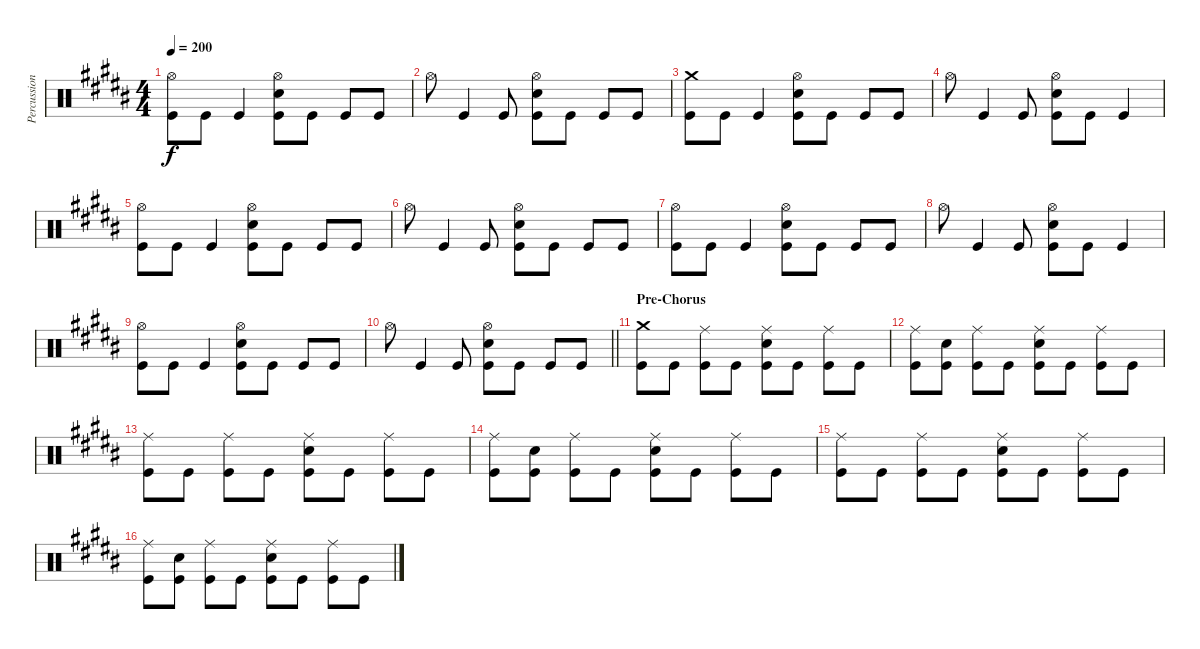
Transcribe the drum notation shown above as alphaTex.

\track ("Percussion" "Percussion") {instrument percussion}
\staff {score}
\articulation defaults
\ts (4 4)
\tempo 200
\clef neutral
\ks b
("Hi-Hat (open)" "Kick (hit)").8{dy f} "Kick (hit)".8 "Kick (hit)".4 ("Hi-Hat (open)" "Electric Snare (hit)" "Kick (hit)").8 "Kick (hit)".8 "Kick (hit)".8 "Kick (hit)".8 |
"Hi-Hat (open)".8 "Kick (hit)".4 "Kick (hit)".8 ("Hi-Hat (open)" "Electric Snare (hit)" "Kick (hit)").8 "Kick (hit)".8 "Kick (hit)".8 "Kick (hit)".8 |
("Crash medium (hit)" "Kick (hit)").8 "Kick (hit)".8 "Kick (hit)".4 ("Hi-Hat (open)" "Electric Snare (hit)" "Kick (hit)").8 "Kick (hit)".8 "Kick (hit)".8 "Kick (hit)".8 |
"Hi-Hat (open)".8 "Kick (hit)".4 "Kick (hit)".8 ("Hi-Hat (open)" "Electric Snare (hit)" "Kick (hit)").8 "Kick (hit)".8 "Kick (hit)".4 |
("Hi-Hat (open)" "Kick (hit)").8 "Kick (hit)".8 "Kick (hit)".4 ("Hi-Hat (open)" "Electric Snare (hit)" "Kick (hit)").8 "Kick (hit)".8 "Kick (hit)".8 "Kick (hit)".8 |
"Hi-Hat (open)".8 "Kick (hit)".4 "Kick (hit)".8 ("Hi-Hat (open)" "Electric Snare (hit)" "Kick (hit)").8 "Kick (hit)".8 "Kick (hit)".8 "Kick (hit)".8 |
("Hi-Hat (open)" "Kick (hit)").8 "Kick (hit)".8 "Kick (hit)".4 ("Hi-Hat (open)" "Electric Snare (hit)" "Kick (hit)").8 "Kick (hit)".8 "Kick (hit)".8 "Kick (hit)".8 |
"Hi-Hat (open)".8 "Kick (hit)".4 "Kick (hit)".8 ("Hi-Hat (open)" "Electric Snare (hit)" "Kick (hit)").8 "Kick (hit)".8 "Kick (hit)".4 |
("Hi-Hat (open)" "Kick (hit)").8 "Kick (hit)".8 "Kick (hit)".4 ("Hi-Hat (open)" "Electric Snare (hit)" "Kick (hit)").8 "Kick (hit)".8 "Kick (hit)".8 "Kick (hit)".8 |
\barLineRight lightlight "Hi-Hat (open)".8 "Kick (hit)".4 "Kick (hit)".8
("Hi-Hat (open)" "Electric Snare (hit)" "Kick (hit)").8 "Kick (hit)".8 "Kick (hit)".8 "Kick (hit)".8 |
\section ("" "Pre-Chorus")
("Crash medium (hit)" "Kick (hit)").8 "Kick (hit)".8 ("Ride (middle)" "Kick (hit)").8 "Kick (hit)".8 ("Ride (middle)" "Electric Snare (hit)" "Kick (hit)").8 "Kick (hit)".8 ("Ride (middle)" "Kick (hit)").8 "Kick (hit)".8 |
("Ride (middle)" "Kick (hit)").8 ("Electric Snare (hit)" "Kick (hit)").8 ("Ride (middle)" "Kick (hit)").8 "Kick (hit)".8 ("Ride (middle)" "Electric Snare (hit)" "Kick (hit)").8 "Kick (hit)".8 ("Ride (middle)" "Kick (hit)").8 "Kick (hit)".8 |
("Ride (middle)" "Kick (hit)").8 "Kick (hit)".8 ("Ride (middle)" "Kick (hit)").8 "Kick (hit)".8 ("Ride (middle)" "Electric Snare (hit)" "Kick (hit)").8 "Kick (hit)".8 ("Ride (middle)" "Kick (hit)").8 "Kick (hit)".8 |
("Ride (middle)" "Kick (hit)").8 ("Electric Snare (hit)" "Kick (hit)").8 ("Ride (middle)" "Kick (hit)").8 "Kick (hit)".8 ("Ride (middle)" "Electric Snare (hit)" "Kick (hit)").8 "Kick (hit)".8 ("Ride (middle)" "Kick (hit)").8 "Kick (hit)".8 |
("Ride (middle)" "Kick (hit)").8 "Kick (hit)".8 ("Ride (middle)" "Kick (hit)").8 "Kick (hit)".8 ("Ride (middle)" "Electric Snare (hit)" "Kick (hit)").8 "Kick (hit)".8 ("Ride (middle)" "Kick (hit)").8 "Kick (hit)".8 |
("Ride (middle)" "Kick (hit)").8 ("Electric Snare (hit)" "Kick (hit)").8 ("Ride (middle)" "Kick (hit)").8 "Kick (hit)".8 ("Ride (middle)" "Electric Snare (hit)" "Kick (hit)").8 "Kick (hit)".8 ("Ride (middle)" "Kick (hit)").8 "Kick (hit)".8
